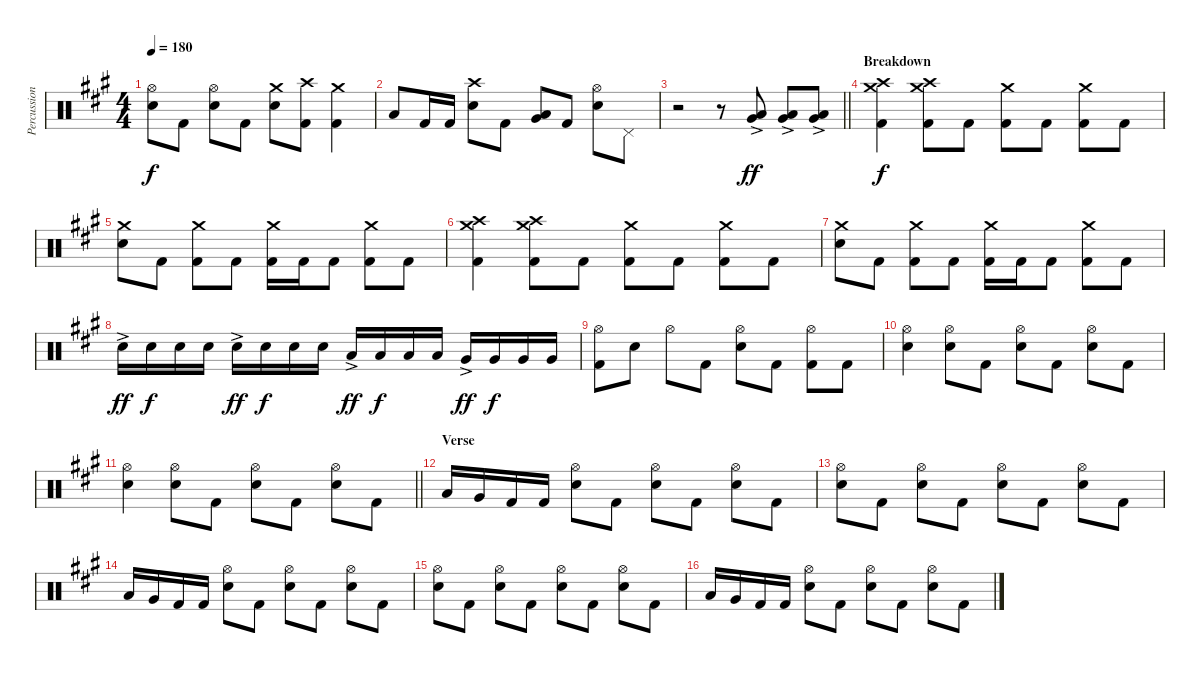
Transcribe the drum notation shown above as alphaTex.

\track ("Percussion" "Percussion") {instrument percussion}
\staff {score}
\articulation defaults
\ts (4 4)
\tempo 180
\clef neutral
\ks f#minor
("Hi-Hat (open)" "Electric Snare (hit)").8{dy f} "Kick (hit) 2".8 ("Hi-Hat (open)" "Electric Snare (hit)").8 "Kick (hit) 2".8 ("Crash medium (hit)" "Electric Snare (hit)").8 ("Crash high (hit)" "Kick (hit) 2").8 ("Crash medium (hit)" "Kick (hit) 2").4 |
"Low Tom (hit)".8 "Kick (hit) 2".16 "Kick (hit) 2".16 ("Crash high (hit)" "Electric Snare (hit)").8 "Kick (hit) 2".8 ("Very Low Tom (hit)" "Low Floor Tom (hit)").8 "Kick (hit) 2".8 ("Hi-Hat (open)" "Electric Snare (hit)").8 "Pedal Hi-Hat (hit)".8 |
\barLineRight lightlight
r.2 r.8 ("Very Low Tom (hit)"{ac} "Low Floor Tom (hit)"{ac}).8{dy ff} ("Very Low Tom (hit)"{ac} "Low Floor Tom (hit)"{ac}).8 ("Very Low Tom (hit)"{ac} "Low Floor Tom (hit)"{ac}).8 |
\section ("" "Breakdown")
("Crash medium (hit)" "Crash high (hit)" "Kick (hit) 2").4{dy f} ("Crash medium (hit)" "Crash high (hit)" "Kick (hit) 2").8 "Kick (hit) 2".8 ("Crash medium (hit)" "Kick (hit) 2").8 "Kick (hit) 2".8 ("Crash medium (hit)" "Kick (hit) 2").8 "Kick (hit) 2".8 |
("Crash medium (hit)" "Electric Snare (hit)").8 "Kick (hit) 2".8 ("Crash medium (hit)" "Kick (hit) 2").8 "Kick (hit) 2".8 ("Crash medium (hit)" "Kick (hit) 2").16 "Kick (hit) 2".16 "Kick (hit) 2".8 ("Crash medium (hit)" "Kick (hit) 2").8 "Kick (hit) 2".8 |
("Crash medium (hit)" "Crash high (hit)" "Kick (hit) 2").4 ("Crash medium (hit)" "Crash high (hit)" "Kick (hit) 2").8 "Kick (hit) 2".8 ("Crash medium (hit)" "Kick (hit) 2").8 "Kick (hit) 2".8 ("Crash medium (hit)" "Kick (hit) 2").8 "Kick (hit) 2".8 |
("Crash medium (hit)" "Electric Snare (hit)").8 "Kick (hit) 2".8 ("Crash medium (hit)" "Kick (hit) 2").8 "Kick (hit) 2".8 ("Crash medium (hit)" "Kick (hit) 2").16 "Kick (hit) 2".16 "Kick (hit) 2".8 ("Crash medium (hit)" "Kick (hit) 2").8 "Kick (hit) 2".8 |
"Electric Snare (hit)"{ac}.16{dy ff} "Electric Snare (hit)".16{dy f} "Electric Snare (hit)".16 "Electric Snare (hit)".16 "Electric Snare (hit)"{ac}.16{dy ff} "Electric Snare (hit)".16{dy f} "Electric Snare (hit)".16 "Electric Snare (hit)".16 "Low Tom (hit)"{ac}.16{dy ff} "Low Tom (hit)".16{dy f} "Low Tom (hit)".16 "Low Tom (hit)".16 "Very Low Tom (hit)"{ac}.16{dy ff} "Very Low Tom (hit)".16{dy f} "Very Low Tom (hit)".16 "Very Low Tom (hit)".16 |
("Hi-Hat (open)" "Kick (hit) 2").8 "Electric Snare (hit)".8 "Hi-Hat (open)".8 "Kick (hit) 2".8 ("Hi-Hat (open)" "Electric Snare (hit)").8 "Kick (hit) 2".8 ("Hi-Hat (open)" "Kick (hit) 2").8 "Kick (hit) 2".8 |
("Hi-Hat (open)" "Electric Snare (hit)").4 ("Hi-Hat (open)" "Electric Snare (hit)").8 "Kick (hit) 2".8 ("Hi-Hat (open)" "Electric Snare (hit)").8 "Kick (hit) 2".8 ("Hi-Hat (open)" "Electric Snare (hit)").8 "Kick (hit) 2".8 |
\barLineRight lightlight
("Hi-Hat (open)" "Electric Snare (hit)").4 ("Hi-Hat (open)" "Electric Snare (hit)").8 "Kick (hit) 2".8 ("Hi-Hat (open)" "Electric Snare (hit)").8 "Kick (hit) 2".8 ("Hi-Hat (open)" "Electric Snare (hit)").8 "Kick (hit) 2".8 |
\section ("" "Verse")
"Low Tom (hit)".16 "Very Low Tom (hit)".16 "Kick (hit) 2".16 "Kick (hit) 2".16 ("Hi-Hat (open)" "Electric Snare (hit)").8 "Kick (hit) 2".8 ("Hi-Hat (open)" "Electric Snare (hit)").8 "Kick (hit) 2".8 ("Hi-Hat (open)" "Electric Snare (hit)").8 "Kick (hit) 2".8 |
("Hi-Hat (open)" "Electric Snare (hit)").8 "Kick (hit) 2".8 ("Hi-Hat (open)" "Electric Snare (hit)").8 "Kick (hit) 2".8 ("Hi-Hat (open)" "Electric Snare (hit)").8 "Kick (hit) 2".8 ("Hi-Hat (open)" "Electric Snare (hit)").8 "Kick (hit) 2".8 |
"Low Tom (hit)".16 "Very Low Tom (hit)".16 "Kick (hit) 2".16 "Kick (hit) 2".16 ("Hi-Hat (open)" "Electric Snare (hit)").8 "Kick (hit) 2".8 ("Hi-Hat (open)" "Electric Snare (hit)").8 "Kick (hit) 2".8 ("Hi-Hat (open)" "Electric Snare (hit)").8 "Kick (hit) 2".8 |
("Hi-Hat (open)" "Electric Snare (hit)").8 "Kick (hit) 2".8 ("Hi-Hat (open)" "Electric Snare (hit)").8 "Kick (hit) 2".8 ("Hi-Hat (open)" "Electric Snare (hit)").8 "Kick (hit) 2".8 ("Hi-Hat (open)" "Electric Snare (hit)").8 "Kick (hit) 2".8 |
"Low Tom (hit)".16 "Very Low Tom (hit)".16 "Kick (hit) 2".16 "Kick (hit) 2".16 ("Hi-Hat (open)" "Electric Snare (hit)").8 "Kick (hit) 2".8 ("Hi-Hat (open)" "Electric Snare (hit)").8 "Kick (hit) 2".8 ("Hi-Hat (open)" "Electric Snare (hit)").8 "Kick (hit) 2".8
